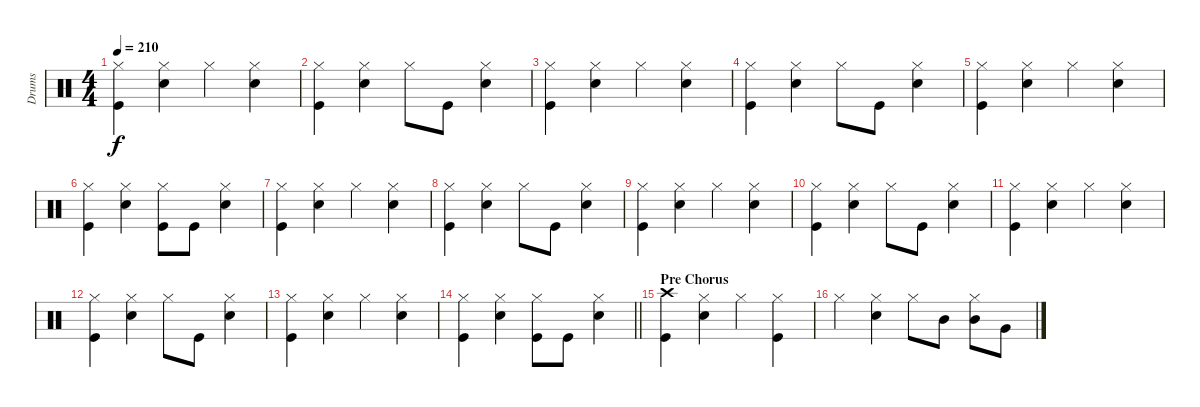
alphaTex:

\track ("Drums" "Drums") {instrument percussion}
\staff {score}
\articulation defaults
\ts (4 4)
\tempo 210
\clef neutral
\ks c
("Hi-Hat (closed)" "Kick (hit)").4{dy f} ("Hi-Hat (closed)" "Snare (hit) 2").4 "Hi-Hat (closed)".4 ("Hi-Hat (closed)" "Snare (hit) 2").4 |
("Hi-Hat (closed)" "Kick (hit)").4 ("Hi-Hat (closed)" "Snare (hit) 2").4 "Hi-Hat (closed)".8 "Kick (hit)".8 ("Hi-Hat (closed)" "Snare (hit) 2").4 |
("Hi-Hat (closed)" "Kick (hit)").4 ("Hi-Hat (closed)" "Snare (hit) 2").4 "Hi-Hat (closed)".4 ("Hi-Hat (closed)" "Snare (hit) 2").4 |
("Hi-Hat (closed)" "Kick (hit)").4 ("Hi-Hat (closed)" "Snare (hit) 2").4 "Hi-Hat (closed)".8 "Kick (hit)".8 ("Hi-Hat (closed)" "Snare (hit) 2").4 |
("Hi-Hat (closed)" "Kick (hit)").4 ("Hi-Hat (closed)" "Snare (hit) 2").4 "Hi-Hat (closed)".4 ("Hi-Hat (closed)" "Snare (hit) 2").4 |
("Hi-Hat (closed)" "Kick (hit)").4 ("Hi-Hat (closed)" "Snare (hit) 2").4 ("Hi-Hat (closed)" "Kick (hit)").8 "Kick (hit)".8 ("Hi-Hat (closed)" "Snare (hit) 2").4 |
("Hi-Hat (closed)" "Kick (hit)").4 ("Hi-Hat (closed)" "Snare (hit) 2").4 "Hi-Hat (closed)".4 ("Hi-Hat (closed)" "Snare (hit) 2").4 |
("Hi-Hat (closed)" "Kick (hit)").4 ("Hi-Hat (closed)" "Snare (hit) 2").4 "Hi-Hat (closed)".8 "Kick (hit)".8 ("Hi-Hat (closed)" "Snare (hit) 2").4 |
("Hi-Hat (closed)" "Kick (hit)").4 ("Hi-Hat (closed)" "Snare (hit) 2").4 "Hi-Hat (closed)".4 ("Hi-Hat (closed)" "Snare (hit) 2").4 |
("Hi-Hat (closed)" "Kick (hit)").4 ("Hi-Hat (closed)" "Snare (hit) 2").4 "Hi-Hat (closed)".8 "Kick (hit)".8 ("Hi-Hat (closed)" "Snare (hit) 2").4 |
("Hi-Hat (closed)" "Kick (hit)").4 ("Hi-Hat (closed)" "Snare (hit) 2").4 "Hi-Hat (closed)".4 ("Hi-Hat (closed)" "Snare (hit) 2").4 |
("Hi-Hat (closed)" "Kick (hit)").4 ("Hi-Hat (closed)" "Snare (hit) 2").4 "Hi-Hat (closed)".8 "Kick (hit)".8 ("Hi-Hat (closed)" "Snare (hit) 2").4 |
("Hi-Hat (closed)" "Kick (hit)").4 ("Hi-Hat (closed)" "Snare (hit) 2").4 "Hi-Hat (closed)".4 ("Hi-Hat (closed)" "Snare (hit) 2").4 |
\barLineRight lightlight
("Hi-Hat (closed)" "Kick (hit)").4 ("Hi-Hat (closed)" "Snare (hit) 2").4 ("Hi-Hat (closed)" "Kick (hit)").8 "Kick (hit)".8 ("Hi-Hat (closed)" "Snare (hit) 2").4 |
\section ("" "Pre Chorus")
("Crash high (hit)" "Kick (hit)").4 ("Hi-Hat (closed)" "Snare (hit) 2").4 "Hi-Hat (closed)".4 ("Hi-Hat (closed)" "Kick (hit)").4 |
"Hi-Hat (closed)".4 ("Hi-Hat (closed)" "Snare (hit) 2").4 "Hi-Hat (closed)".8 "Mid Tom (hit)".8 ("Hi-Hat (closed)" "Mid Tom (hit)").8 "Very Low Tom (hit)".8
